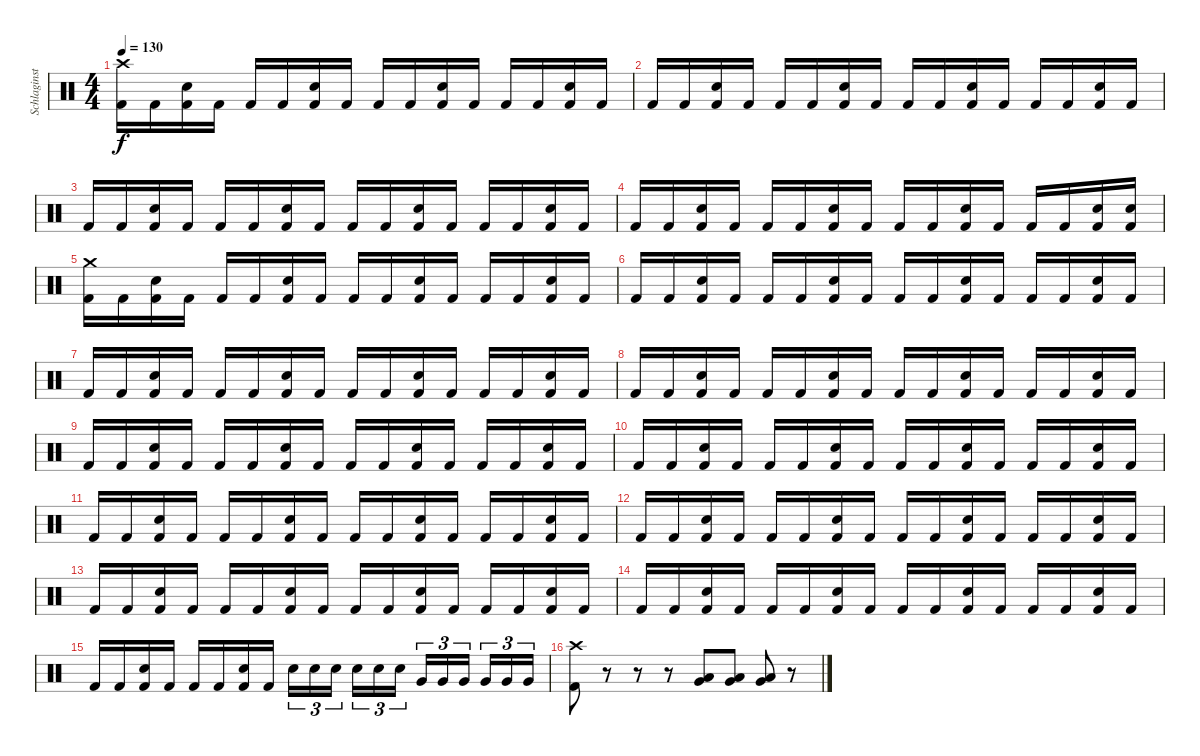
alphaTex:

\track ("Schlaginstrumente - Auswahl" "Schlaginst") {instrument percussion}
\staff {score}
\articulation defaults
\ts (4 4)
\tempo 130
\clef neutral
\ks c
("Crash high (hit)" "Kick (hit) 2").16{dy f} "Kick (hit) 2".16 ("Electric Snare (hit)" "Kick (hit) 2").16 "Kick (hit) 2".16 "Kick (hit) 2".16 "Kick (hit) 2".16 ("Electric Snare (hit)" "Kick (hit) 2").16 "Kick (hit) 2".16 "Kick (hit) 2".16 "Kick (hit) 2".16 ("Electric Snare (hit)" "Kick (hit) 2").16 "Kick (hit) 2".16 "Kick (hit) 2".16 "Kick (hit) 2".16 ("Electric Snare (hit)" "Kick (hit) 2").16 "Kick (hit) 2".16 |
"Kick (hit) 2".16 "Kick (hit) 2".16 ("Electric Snare (hit)" "Kick (hit) 2").16 "Kick (hit) 2".16 "Kick (hit) 2".16 "Kick (hit) 2".16 ("Electric Snare (hit)" "Kick (hit) 2").16 "Kick (hit) 2".16 "Kick (hit) 2".16 "Kick (hit) 2".16 ("Electric Snare (hit)" "Kick (hit) 2").16 "Kick (hit) 2".16 "Kick (hit) 2".16 "Kick (hit) 2".16 ("Electric Snare (hit)" "Kick (hit) 2").16 "Kick (hit) 2".16 |
"Kick (hit) 2".16 "Kick (hit) 2".16 ("Electric Snare (hit)" "Kick (hit) 2").16 "Kick (hit) 2".16 "Kick (hit) 2".16 "Kick (hit) 2".16 ("Electric Snare (hit)" "Kick (hit) 2").16 "Kick (hit) 2".16 "Kick (hit) 2".16 "Kick (hit) 2".16 ("Electric Snare (hit)" "Kick (hit) 2").16 "Kick (hit) 2".16 "Kick (hit) 2".16 "Kick (hit) 2".16 ("Electric Snare (hit)" "Kick (hit) 2").16 "Kick (hit) 2".16 |
"Kick (hit) 2".16 "Kick (hit) 2".16 ("Electric Snare (hit)" "Kick (hit) 2").16 "Kick (hit) 2".16 "Kick (hit) 2".16 "Kick (hit) 2".16 ("Electric Snare (hit)" "Kick (hit) 2").16 "Kick (hit) 2".16 "Kick (hit) 2".16 "Kick (hit) 2".16 ("Electric Snare (hit)" "Kick (hit) 2").16 "Kick (hit) 2".16 "Kick (hit) 2".16 "Kick (hit) 2".16 ("Electric Snare (hit)" "Kick (hit) 2").16 ("Electric Snare (hit)" "Kick (hit) 2").16 |
("Crash medium (hit)" "Kick (hit) 2").16 "Kick (hit) 2".16 ("Electric Snare (hit)" "Kick (hit) 2").16 "Kick (hit) 2".16 "Kick (hit) 2".16 "Kick (hit) 2".16 ("Electric Snare (hit)" "Kick (hit) 2").16 "Kick (hit) 2".16 "Kick (hit) 2".16 "Kick (hit) 2".16 ("Electric Snare (hit)" "Kick (hit) 2").16 "Kick (hit) 2".16 "Kick (hit) 2".16 "Kick (hit) 2".16 ("Electric Snare (hit)" "Kick (hit) 2").16 "Kick (hit) 2".16 |
"Kick (hit) 2".16 "Kick (hit) 2".16 ("Electric Snare (hit)" "Kick (hit) 2").16 "Kick (hit) 2".16 "Kick (hit) 2".16 "Kick (hit) 2".16 ("Electric Snare (hit)" "Kick (hit) 2").16 "Kick (hit) 2".16 "Kick (hit) 2".16 "Kick (hit) 2".16 ("Electric Snare (hit)" "Kick (hit) 2").16 "Kick (hit) 2".16 "Kick (hit) 2".16 "Kick (hit) 2".16 ("Electric Snare (hit)" "Kick (hit) 2").16 "Kick (hit) 2".16 |
"Kick (hit) 2".16 "Kick (hit) 2".16 ("Electric Snare (hit)" "Kick (hit) 2").16 "Kick (hit) 2".16 "Kick (hit) 2".16 "Kick (hit) 2".16 ("Electric Snare (hit)" "Kick (hit) 2").16 "Kick (hit) 2".16 "Kick (hit) 2".16 "Kick (hit) 2".16 ("Electric Snare (hit)" "Kick (hit) 2").16 "Kick (hit) 2".16 "Kick (hit) 2".16 "Kick (hit) 2".16 ("Electric Snare (hit)" "Kick (hit) 2").16 "Kick (hit) 2".16 |
"Kick (hit) 2".16 "Kick (hit) 2".16 ("Electric Snare (hit)" "Kick (hit) 2").16 "Kick (hit) 2".16 "Kick (hit) 2".16 "Kick (hit) 2".16 ("Electric Snare (hit)" "Kick (hit) 2").16 "Kick (hit) 2".16 "Kick (hit) 2".16 "Kick (hit) 2".16 ("Electric Snare (hit)" "Kick (hit) 2").16 "Kick (hit) 2".16 "Kick (hit) 2".16 "Kick (hit) 2".16 ("Electric Snare (hit)" "Kick (hit) 2").16 "Kick (hit) 2".16 |
"Kick (hit) 2".16 "Kick (hit) 2".16 ("Electric Snare (hit)" "Kick (hit) 2").16 "Kick (hit) 2".16 "Kick (hit) 2".16 "Kick (hit) 2".16 ("Electric Snare (hit)" "Kick (hit) 2").16 "Kick (hit) 2".16 "Kick (hit) 2".16 "Kick (hit) 2".16 ("Electric Snare (hit)" "Kick (hit) 2").16 "Kick (hit) 2".16 "Kick (hit) 2".16 "Kick (hit) 2".16 ("Electric Snare (hit)" "Kick (hit) 2").16 "Kick (hit) 2".16 |
"Kick (hit) 2".16 "Kick (hit) 2".16 ("Electric Snare (hit)" "Kick (hit) 2").16 "Kick (hit) 2".16 "Kick (hit) 2".16 "Kick (hit) 2".16 ("Electric Snare (hit)" "Kick (hit) 2").16 "Kick (hit) 2".16 "Kick (hit) 2".16 "Kick (hit) 2".16 ("Electric Snare (hit)" "Kick (hit) 2").16 "Kick (hit) 2".16 "Kick (hit) 2".16 "Kick (hit) 2".16 ("Electric Snare (hit)" "Kick (hit) 2").16 "Kick (hit) 2".16 |
"Kick (hit) 2".16 "Kick (hit) 2".16 ("Electric Snare (hit)" "Kick (hit) 2").16 "Kick (hit) 2".16 "Kick (hit) 2".16 "Kick (hit) 2".16 ("Electric Snare (hit)" "Kick (hit) 2").16 "Kick (hit) 2".16 "Kick (hit) 2".16 "Kick (hit) 2".16 ("Electric Snare (hit)" "Kick (hit) 2").16 "Kick (hit) 2".16 "Kick (hit) 2".16 "Kick (hit) 2".16 ("Electric Snare (hit)" "Kick (hit) 2").16 "Kick (hit) 2".16 |
"Kick (hit) 2".16 "Kick (hit) 2".16 ("Electric Snare (hit)" "Kick (hit) 2").16 "Kick (hit) 2".16 "Kick (hit) 2".16 "Kick (hit) 2".16 ("Electric Snare (hit)" "Kick (hit) 2").16 "Kick (hit) 2".16 "Kick (hit) 2".16 "Kick (hit) 2".16 ("Electric Snare (hit)" "Kick (hit) 2").16 "Kick (hit) 2".16 "Kick (hit) 2".16 "Kick (hit) 2".16 ("Electric Snare (hit)" "Kick (hit) 2").16 "Kick (hit) 2".16 |
"Kick (hit) 2".16 "Kick (hit) 2".16 ("Electric Snare (hit)" "Kick (hit) 2").16 "Kick (hit) 2".16 "Kick (hit) 2".16 "Kick (hit) 2".16 ("Electric Snare (hit)" "Kick (hit) 2").16 "Kick (hit) 2".16 "Kick (hit) 2".16 "Kick (hit) 2".16 ("Electric Snare (hit)" "Kick (hit) 2").16 "Kick (hit) 2".16 "Kick (hit) 2".16 "Kick (hit) 2".16 ("Electric Snare (hit)" "Kick (hit) 2").16 "Kick (hit) 2".16 |
"Kick (hit) 2".16 "Kick (hit) 2".16 ("Electric Snare (hit)" "Kick (hit) 2").16 "Kick (hit) 2".16 "Kick (hit) 2".16 "Kick (hit) 2".16 ("Electric Snare (hit)" "Kick (hit) 2").16 "Kick (hit) 2".16 "Kick (hit) 2".16 "Kick (hit) 2".16 ("Electric Snare (hit)" "Kick (hit) 2").16 "Kick (hit) 2".16 "Kick (hit) 2".16 "Kick (hit) 2".16 ("Electric Snare (hit)" "Kick (hit) 2").16 "Kick (hit) 2".16 |
"Kick (hit) 2".16 "Kick (hit) 2".16 ("Electric Snare (hit)" "Kick (hit) 2").16 "Kick (hit) 2".16 "Kick (hit) 2".16 "Kick (hit) 2".16 ("Electric Snare (hit)" "Kick (hit) 2").16 "Kick (hit) 2".16 "Electric Snare (hit)".16{tu (3 2)} "Electric Snare (hit)".16{tu (3 2)} "Electric Snare (hit)".16{tu (3 2) beam splitsecondary} "Electric Snare (hit)".16{tu (3 2)} "Electric Snare (hit)".16{tu (3 2)} "Electric Snare (hit)".16{tu (3 2)} "Very Low Tom (hit)".16{tu (3 2)} "Very Low Tom (hit)".16{tu (3 2)} "Very Low Tom (hit)".16{tu (3 2) beam splitsecondary} "Very Low Tom (hit)".16{tu (3 2)} "Very Low Tom (hit)".16{tu (3 2)} "Very Low Tom (hit)".16{tu (3 2)} |
("Crash high (hit)" "Kick (hit) 2").8 r.8 r.8 r.8 ("Very Low Tom (hit)" "Low Floor Tom (hit)").8 ("Very Low Tom (hit)" "Low Floor Tom (hit)").8 ("Very Low Tom (hit)" "Low Floor Tom (hit)").8 r.8
